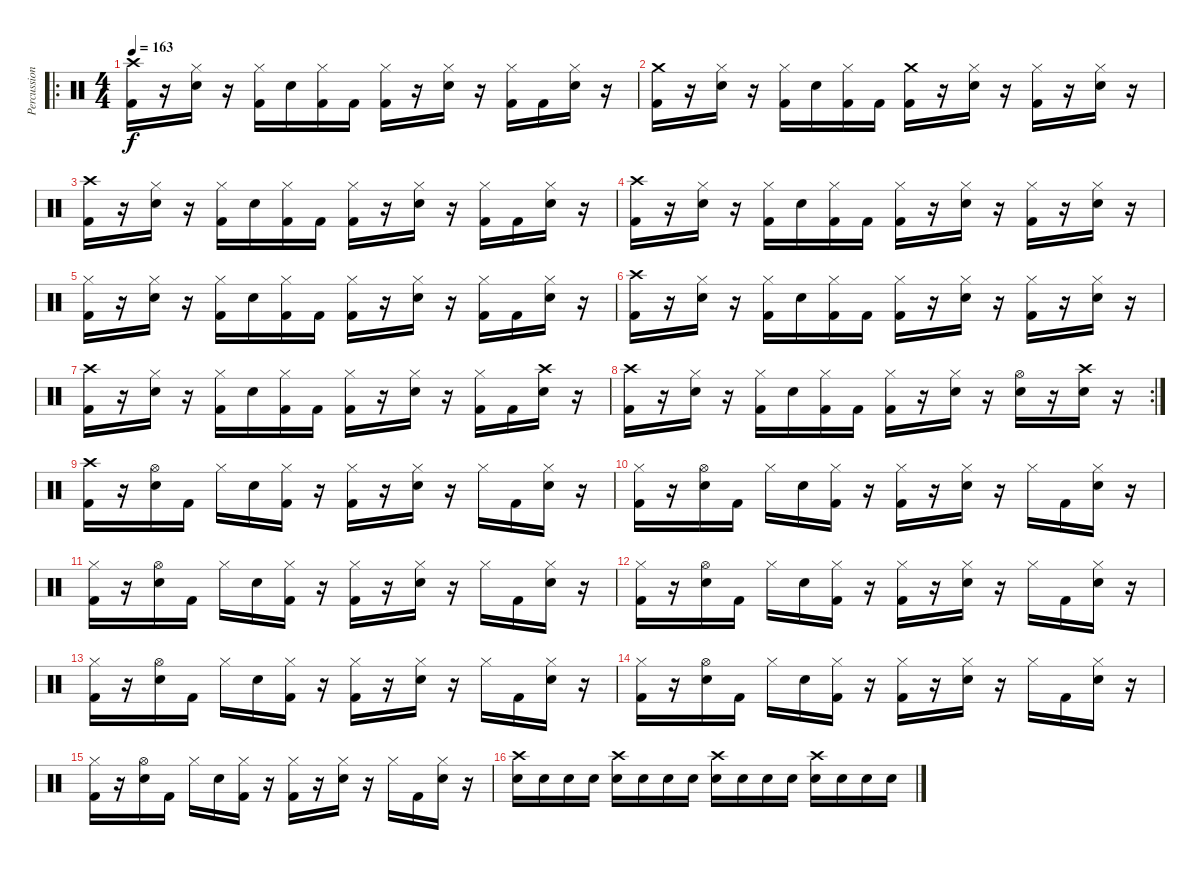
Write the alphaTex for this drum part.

\track ("Percussion" "Percussion") {instrument percussion}
\staff {score}
\articulation defaults
\ro
\ts (4 4)
\tempo 163
\clef neutral
\ks c
("Crash high (hit)" "Kick (hit) 2").16{dy f} r.16 ("Hi-Hat (closed)" "Snare (hit) 2").16 r.16 ("Hi-Hat (closed)" "Kick (hit) 2").16 "Snare (hit) 2".16 ("Hi-Hat (closed)" "Kick (hit) 2").16 "Kick (hit) 2".16 ("Hi-Hat (closed)" "Kick (hit) 2").16 r.16 ("Hi-Hat (closed)" "Snare (hit) 2").16 r.16 ("Hi-Hat (closed)" "Kick (hit) 2").16 "Kick (hit) 2".16 ("Hi-Hat (closed)" "Snare (hit) 2").16 r.16 |
("Crash medium (hit)" "Kick (hit) 2").16 r.16 ("Hi-Hat (closed)" "Snare (hit) 2").16 r.16 ("Hi-Hat (closed)" "Kick (hit) 2").16 "Snare (hit) 2".16 ("Hi-Hat (closed)" "Kick (hit) 2").16 "Kick (hit) 2".16 ("Crash medium (hit)" "Kick (hit) 2").16 r.16 ("Hi-Hat (closed)" "Snare (hit) 2").16 r.16 ("Hi-Hat (closed)" "Kick (hit) 2").16 r.16 ("Hi-Hat (closed)" "Snare (hit) 2").16 r.16 |
("Crash high (hit)" "Kick (hit) 2").16 r.16 ("Hi-Hat (closed)" "Snare (hit) 2").16 r.16 ("Hi-Hat (closed)" "Kick (hit) 2").16 "Snare (hit) 2".16 ("Hi-Hat (closed)" "Kick (hit) 2").16 "Kick (hit) 2".16 ("Hi-Hat (closed)" "Kick (hit) 2").16 r.16 ("Hi-Hat (closed)" "Snare (hit) 2").16 r.16 ("Hi-Hat (closed)" "Kick (hit) 2").16 "Kick (hit) 2".16 ("Hi-Hat (closed)" "Snare (hit) 2").16 r.16 |
("Crash high (hit)" "Kick (hit) 2").16 r.16 ("Hi-Hat (closed)" "Snare (hit) 2").16 r.16 ("Hi-Hat (closed)" "Kick (hit) 2").16 "Snare (hit) 2".16 ("Hi-Hat (closed)" "Kick (hit) 2").16 "Kick (hit) 2".16 ("Hi-Hat (closed)" "Kick (hit) 2").16 r.16 ("Hi-Hat (closed)" "Snare (hit) 2").16 r.16 ("Hi-Hat (closed)" "Kick (hit) 2").16 r.16 ("Hi-Hat (closed)" "Snare (hit) 2").16 r.16 |
("Hi-Hat (closed)" "Kick (hit) 2").16 r.16 ("Hi-Hat (closed)" "Snare (hit) 2").16 r.16 ("Hi-Hat (closed)" "Kick (hit) 2").16 "Snare (hit) 2".16 ("Hi-Hat (closed)" "Kick (hit) 2").16 "Kick (hit) 2".16 ("Hi-Hat (closed)" "Kick (hit) 2").16 r.16 ("Hi-Hat (closed)" "Snare (hit) 2").16 r.16 ("Hi-Hat (closed)" "Kick (hit) 2").16 "Kick (hit) 2".16 ("Hi-Hat (closed)" "Snare (hit) 2").16 r.16 |
("Crash high (hit)" "Kick (hit) 2").16 r.16 ("Hi-Hat (closed)" "Snare (hit) 2").16 r.16 ("Hi-Hat (closed)" "Kick (hit) 2").16 "Snare (hit) 2".16 ("Hi-Hat (closed)" "Kick (hit) 2").16 "Kick (hit) 2".16 ("Hi-Hat (closed)" "Kick (hit) 2").16 r.16 ("Hi-Hat (closed)" "Snare (hit) 2").16 r.16 ("Hi-Hat (closed)" "Kick (hit) 2").16 r.16 ("Hi-Hat (closed)" "Snare (hit) 2").16 r.16 |
("Crash high (hit)" "Kick (hit) 2").16 r.16 ("Hi-Hat (closed)" "Snare (hit) 2").16 r.16 ("Hi-Hat (closed)" "Kick (hit) 2").16 "Snare (hit) 2".16 ("Hi-Hat (closed)" "Kick (hit) 2").16 "Kick (hit) 2".16 ("Hi-Hat (closed)" "Kick (hit) 2").16 r.16 ("Hi-Hat (closed)" "Snare (hit) 2").16 r.16 ("Hi-Hat (closed)" "Kick (hit) 2").16 "Kick (hit) 2".16 ("Crash high (hit)" "Snare (hit) 2").16 r.16 |
\rc 2
("Crash high (hit)" "Kick (hit) 2").16 r.16 ("Hi-Hat (closed)" "Snare (hit) 2").16 r.16 ("Hi-Hat (closed)" "Kick (hit) 2").16 "Snare (hit) 2".16 ("Hi-Hat (closed)" "Kick (hit) 2").16 "Kick (hit) 2".16 ("Hi-Hat (closed)" "Kick (hit) 2").16 r.16 ("Hi-Hat (closed)" "Snare (hit) 2").16 r.16 ("Hi-Hat (open)" "Snare (hit) 2").16 r.16 ("Crash high (hit)" "Snare (hit) 2").16 r.16 |
("Crash high (hit)" "Kick (hit) 2").16 r.16 ("Hi-Hat (open)" "Snare (hit) 2").16 "Kick (hit) 2".16 "Hi-Hat (closed)".16 "Snare (hit) 2".16 ("Hi-Hat (closed)" "Kick (hit) 2").16 r.16 ("Hi-Hat (closed)" "Kick (hit) 2").16 r.16 ("Hi-Hat (closed)" "Snare (hit) 2").16 r.16 "Hi-Hat (closed)".16 "Kick (hit) 2".16 ("Hi-Hat (closed)" "Snare (hit) 2").16 r.16 |
("Hi-Hat (closed)" "Kick (hit) 2").16 r.16 ("Hi-Hat (open)" "Snare (hit) 2").16 "Kick (hit) 2".16 "Hi-Hat (closed)".16 "Snare (hit) 2".16 ("Hi-Hat (closed)" "Kick (hit) 2").16 r.16 ("Hi-Hat (closed)" "Kick (hit) 2").16 r.16 ("Hi-Hat (closed)" "Snare (hit) 2").16 r.16 "Hi-Hat (closed)".16 "Kick (hit) 2".16 ("Hi-Hat (closed)" "Snare (hit) 2").16 r.16 |
("Hi-Hat (closed)" "Kick (hit) 2").16 r.16 ("Hi-Hat (open)" "Snare (hit) 2").16 "Kick (hit) 2".16 "Hi-Hat (closed)".16 "Snare (hit) 2".16 ("Hi-Hat (closed)" "Kick (hit) 2").16 r.16 ("Hi-Hat (closed)" "Kick (hit) 2").16 r.16 ("Hi-Hat (closed)" "Snare (hit) 2").16 r.16 "Hi-Hat (closed)".16 "Kick (hit) 2".16 ("Hi-Hat (closed)" "Snare (hit) 2").16 r.16 |
("Hi-Hat (closed)" "Kick (hit) 2").16 r.16 ("Hi-Hat (open)" "Snare (hit) 2").16 "Kick (hit) 2".16 "Hi-Hat (closed)".16 "Snare (hit) 2".16 ("Hi-Hat (closed)" "Kick (hit) 2").16 r.16 ("Hi-Hat (closed)" "Kick (hit) 2").16 r.16 ("Hi-Hat (closed)" "Snare (hit) 2").16 r.16 "Hi-Hat (closed)".16 "Kick (hit) 2".16 ("Hi-Hat (closed)" "Snare (hit) 2").16 r.16 |
("Hi-Hat (closed)" "Kick (hit) 2").16 r.16 ("Hi-Hat (open)" "Snare (hit) 2").16 "Kick (hit) 2".16 "Hi-Hat (closed)".16 "Snare (hit) 2".16 ("Hi-Hat (closed)" "Kick (hit) 2").16 r.16 ("Hi-Hat (closed)" "Kick (hit) 2").16 r.16 ("Hi-Hat (closed)" "Snare (hit) 2").16 r.16 "Hi-Hat (closed)".16 "Kick (hit) 2".16 ("Hi-Hat (closed)" "Snare (hit) 2").16 r.16 |
("Hi-Hat (closed)" "Kick (hit) 2").16 r.16 ("Hi-Hat (open)" "Snare (hit) 2").16 "Kick (hit) 2".16 "Hi-Hat (closed)".16 "Snare (hit) 2".16 ("Hi-Hat (closed)" "Kick (hit) 2").16 r.16 ("Hi-Hat (closed)" "Kick (hit) 2").16 r.16 ("Hi-Hat (closed)" "Snare (hit) 2").16 r.16 "Hi-Hat (closed)".16 "Kick (hit) 2".16 ("Hi-Hat (closed)" "Snare (hit) 2").16 r.16 |
("Hi-Hat (closed)" "Kick (hit) 2").16 r.16 ("Hi-Hat (open)" "Snare (hit) 2").16 "Kick (hit) 2".16 "Hi-Hat (closed)".16 "Snare (hit) 2".16 ("Hi-Hat (closed)" "Kick (hit) 2").16 r.16 ("Hi-Hat (closed)" "Kick (hit) 2").16 r.16 ("Hi-Hat (closed)" "Snare (hit) 2").16 r.16 "Hi-Hat (closed)".16 "Kick (hit) 2".16 ("Hi-Hat (closed)" "Snare (hit) 2").16 r.16 |
("Crash high (hit)" "Snare (hit) 2").16 "Snare (hit) 2".16 "Snare (hit) 2".16 "Snare (hit) 2".16 ("Crash high (hit)" "Snare (hit) 2").16 "Snare (hit) 2".16 "Snare (hit) 2".16 "Snare (hit) 2".16 ("Crash high (hit)" "Snare (hit) 2").16 "Snare (hit) 2".16 "Snare (hit) 2".16 "Snare (hit) 2".16 ("Crash high (hit)" "Snare (hit) 2").16 "Snare (hit) 2".16 "Snare (hit) 2".16 "Snare (hit) 2".16
